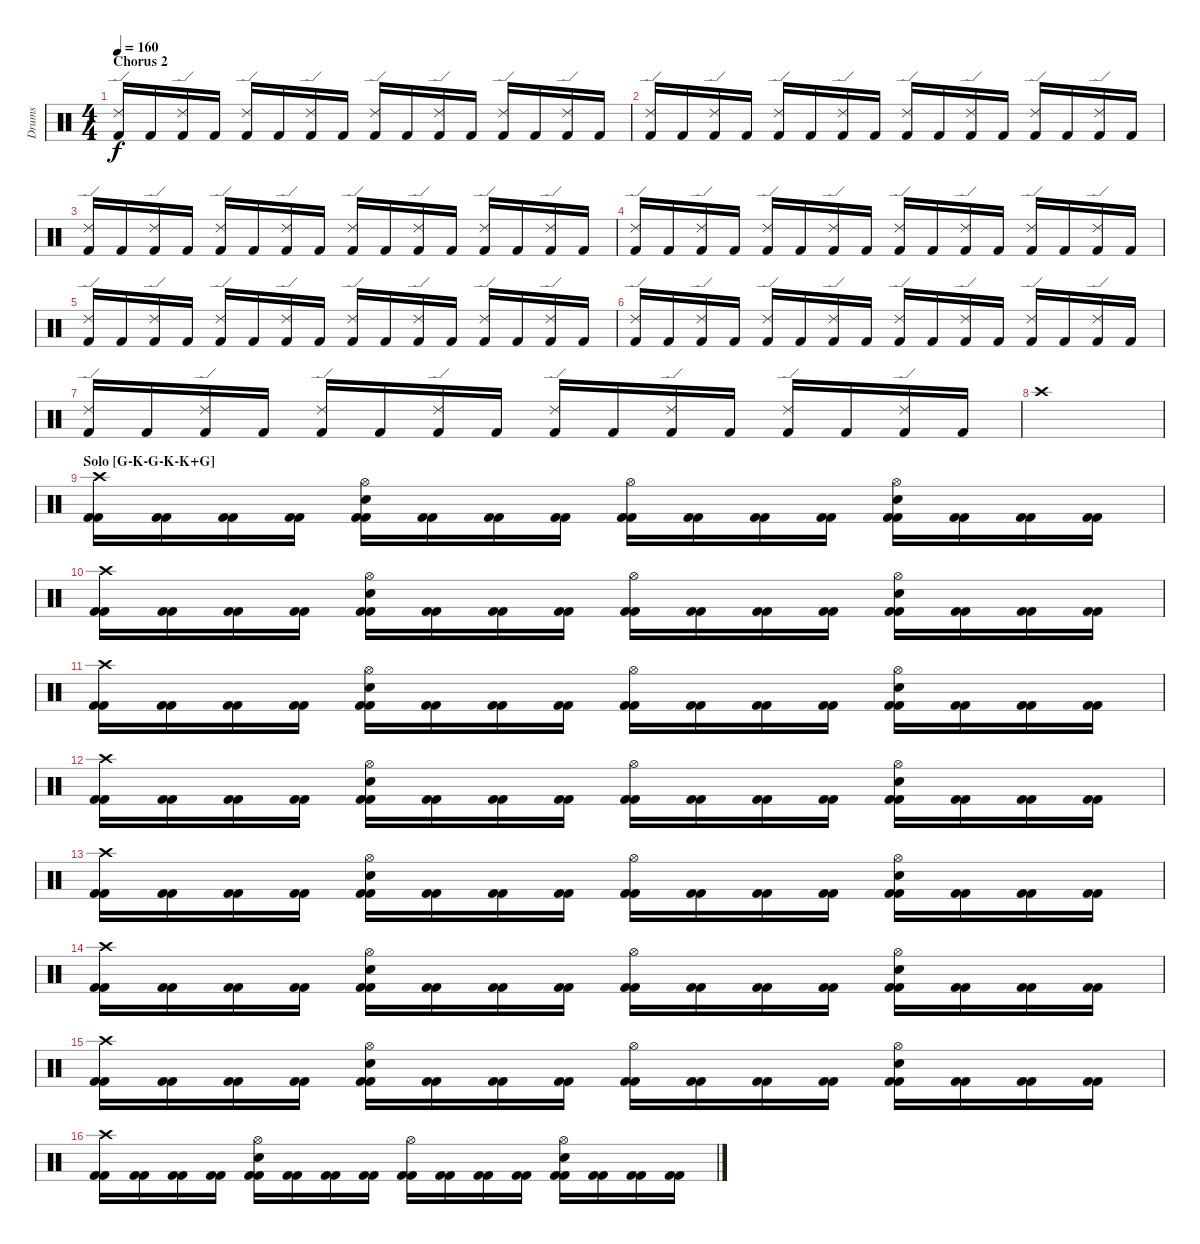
\track ("Drums" "Drums") {instrument percussion}
\staff {score}
\articulation defaults
\ts (4 4)
\section ("" "Chorus 2")
\tempo 160
\clef neutral
\ks c
("Kick (hit) 2" "Ride (edge) 2").16{dy f} "Kick (hit) 2".16 ("Kick (hit) 2" "Ride (edge) 2").16 "Kick (hit) 2".16 ("Kick (hit) 2" "Ride (edge) 2").16 "Kick (hit) 2".16 ("Kick (hit) 2" "Ride (edge) 2").16 "Kick (hit) 2".16 ("Kick (hit) 2" "Ride (edge) 2").16 "Kick (hit) 2".16 ("Kick (hit) 2" "Ride (edge) 2").16 "Kick (hit) 2".16 ("Kick (hit) 2" "Ride (edge) 2").16 "Kick (hit) 2".16 ("Kick (hit) 2" "Ride (edge) 2").16 "Kick (hit) 2".16 |
("Kick (hit) 2" "Ride (edge) 2").16 "Kick (hit) 2".16 ("Kick (hit) 2" "Ride (edge) 2").16 "Kick (hit) 2".16 ("Kick (hit) 2" "Ride (edge) 2").16 "Kick (hit) 2".16 ("Kick (hit) 2" "Ride (edge) 2").16 "Kick (hit) 2".16 ("Kick (hit) 2" "Ride (edge) 2").16 "Kick (hit) 2".16 ("Kick (hit) 2" "Ride (edge) 2").16 "Kick (hit) 2".16 ("Kick (hit) 2" "Ride (edge) 2").16 "Kick (hit) 2".16 ("Kick (hit) 2" "Ride (edge) 2").16 "Kick (hit) 2".16 |
("Kick (hit) 2" "Ride (edge) 2").16 "Kick (hit) 2".16 ("Kick (hit) 2" "Ride (edge) 2").16 "Kick (hit) 2".16 ("Kick (hit) 2" "Ride (edge) 2").16 "Kick (hit) 2".16 ("Kick (hit) 2" "Ride (edge) 2").16 "Kick (hit) 2".16 ("Kick (hit) 2" "Ride (edge) 2").16 "Kick (hit) 2".16 ("Kick (hit) 2" "Ride (edge) 2").16 "Kick (hit) 2".16 ("Kick (hit) 2" "Ride (edge) 2").16 "Kick (hit) 2".16 ("Kick (hit) 2" "Ride (edge) 2").16 "Kick (hit) 2".16 |
("Kick (hit) 2" "Ride (edge) 2").16 "Kick (hit) 2".16 ("Kick (hit) 2" "Ride (edge) 2").16 "Kick (hit) 2".16 ("Kick (hit) 2" "Ride (edge) 2").16 "Kick (hit) 2".16 ("Kick (hit) 2" "Ride (edge) 2").16 "Kick (hit) 2".16 ("Kick (hit) 2" "Ride (edge) 2").16 "Kick (hit) 2".16 ("Kick (hit) 2" "Ride (edge) 2").16 "Kick (hit) 2".16 ("Kick (hit) 2" "Ride (edge) 2").16 "Kick (hit) 2".16 ("Kick (hit) 2" "Ride (edge) 2").16 "Kick (hit) 2".16 |
("Kick (hit) 2" "Ride (edge) 2").16 "Kick (hit) 2".16 ("Kick (hit) 2" "Ride (edge) 2").16 "Kick (hit) 2".16 ("Kick (hit) 2" "Ride (edge) 2").16 "Kick (hit) 2".16 ("Kick (hit) 2" "Ride (edge) 2").16 "Kick (hit) 2".16 ("Kick (hit) 2" "Ride (edge) 2").16 "Kick (hit) 2".16 ("Kick (hit) 2" "Ride (edge) 2").16 "Kick (hit) 2".16 ("Kick (hit) 2" "Ride (edge) 2").16 "Kick (hit) 2".16 ("Kick (hit) 2" "Ride (edge) 2").16 "Kick (hit) 2".16 |
("Kick (hit) 2" "Ride (edge) 2").16 "Kick (hit) 2".16 ("Kick (hit) 2" "Ride (edge) 2").16 "Kick (hit) 2".16 ("Kick (hit) 2" "Ride (edge) 2").16 "Kick (hit) 2".16 ("Kick (hit) 2" "Ride (edge) 2").16 "Kick (hit) 2".16 ("Kick (hit) 2" "Ride (edge) 2").16 "Kick (hit) 2".16 ("Kick (hit) 2" "Ride (edge) 2").16 "Kick (hit) 2".16 ("Kick (hit) 2" "Ride (edge) 2").16 "Kick (hit) 2".16 ("Kick (hit) 2" "Ride (edge) 2").16 "Kick (hit) 2".16 |
("Kick (hit) 2" "Ride (edge) 2").16 "Kick (hit) 2".16 ("Kick (hit) 2" "Ride (edge) 2").16 "Kick (hit) 2".16 ("Kick (hit) 2" "Ride (edge) 2").16 "Kick (hit) 2".16 ("Kick (hit) 2" "Ride (edge) 2").16 "Kick (hit) 2".16 ("Kick (hit) 2" "Ride (edge) 2").16 "Kick (hit) 2".16 ("Kick (hit) 2" "Ride (edge) 2").16 "Kick (hit) 2".16 ("Kick (hit) 2" "Ride (edge) 2").16 "Kick (hit) 2".16 ("Kick (hit) 2" "Ride (edge) 2").16 "Kick (hit) 2".16 |
"Crash high (hit)".1 |
\section ("" "Solo [G-K-G-K-K+G]")
("Kick (hit) 2" "Kick (hit) 2" "Crash high (hit)").16 ("Kick (hit) 2" "Kick (hit) 2").16 ("Kick (hit) 2" "Kick (hit) 2").16 ("Kick (hit) 2" "Kick (hit) 2").16 ("Kick (hit) 2" "Kick (hit) 2" "Electric Snare (hit)" "Hi-Hat (open)").16 ("Kick (hit) 2" "Kick (hit) 2").16 ("Kick (hit) 2" "Kick (hit) 2").16 ("Kick (hit) 2" "Kick (hit) 2").16 ("Kick (hit) 2" "Kick (hit) 2" "Hi-Hat (open)").16 ("Kick (hit) 2" "Kick (hit) 2").16 ("Kick (hit) 2" "Kick (hit) 2").16 ("Kick (hit) 2" "Kick (hit) 2").16 ("Kick (hit) 2" "Kick (hit) 2" "Electric Snare (hit)" "Hi-Hat (open)").16 ("Kick (hit) 2" "Kick (hit) 2").16 ("Kick (hit) 2" "Kick (hit) 2").16 ("Kick (hit) 2" "Kick (hit) 2").16 |
("Kick (hit) 2" "Kick (hit) 2" "Crash high (hit)").16 ("Kick (hit) 2" "Kick (hit) 2").16 ("Kick (hit) 2" "Kick (hit) 2").16 ("Kick (hit) 2" "Kick (hit) 2").16 ("Kick (hit) 2" "Kick (hit) 2" "Electric Snare (hit)" "Hi-Hat (open)").16 ("Kick (hit) 2" "Kick (hit) 2").16 ("Kick (hit) 2" "Kick (hit) 2").16 ("Kick (hit) 2" "Kick (hit) 2").16 ("Kick (hit) 2" "Kick (hit) 2" "Hi-Hat (open)").16 ("Kick (hit) 2" "Kick (hit) 2").16 ("Kick (hit) 2" "Kick (hit) 2").16 ("Kick (hit) 2" "Kick (hit) 2").16 ("Kick (hit) 2" "Kick (hit) 2" "Electric Snare (hit)" "Hi-Hat (open)").16 ("Kick (hit) 2" "Kick (hit) 2").16 ("Kick (hit) 2" "Kick (hit) 2").16 ("Kick (hit) 2" "Kick (hit) 2").16 |
("Kick (hit) 2" "Kick (hit) 2" "Crash high (hit)").16 ("Kick (hit) 2" "Kick (hit) 2").16 ("Kick (hit) 2" "Kick (hit) 2").16 ("Kick (hit) 2" "Kick (hit) 2").16 ("Kick (hit) 2" "Kick (hit) 2" "Electric Snare (hit)" "Hi-Hat (open)").16 ("Kick (hit) 2" "Kick (hit) 2").16 ("Kick (hit) 2" "Kick (hit) 2").16 ("Kick (hit) 2" "Kick (hit) 2").16 ("Kick (hit) 2" "Kick (hit) 2" "Hi-Hat (open)").16 ("Kick (hit) 2" "Kick (hit) 2").16 ("Kick (hit) 2" "Kick (hit) 2").16 ("Kick (hit) 2" "Kick (hit) 2").16 ("Kick (hit) 2" "Kick (hit) 2" "Electric Snare (hit)" "Hi-Hat (open)").16 ("Kick (hit) 2" "Kick (hit) 2").16 ("Kick (hit) 2" "Kick (hit) 2").16 ("Kick (hit) 2" "Kick (hit) 2").16 |
("Kick (hit) 2" "Kick (hit) 2" "Crash high (hit)").16 ("Kick (hit) 2" "Kick (hit) 2").16 ("Kick (hit) 2" "Kick (hit) 2").16 ("Kick (hit) 2" "Kick (hit) 2").16 ("Kick (hit) 2" "Kick (hit) 2" "Electric Snare (hit)" "Hi-Hat (open)").16 ("Kick (hit) 2" "Kick (hit) 2").16 ("Kick (hit) 2" "Kick (hit) 2").16 ("Kick (hit) 2" "Kick (hit) 2").16 ("Kick (hit) 2" "Kick (hit) 2" "Hi-Hat (open)").16 ("Kick (hit) 2" "Kick (hit) 2").16 ("Kick (hit) 2" "Kick (hit) 2").16 ("Kick (hit) 2" "Kick (hit) 2").16 ("Kick (hit) 2" "Kick (hit) 2" "Electric Snare (hit)" "Hi-Hat (open)").16 ("Kick (hit) 2" "Kick (hit) 2").16 ("Kick (hit) 2" "Kick (hit) 2").16 ("Kick (hit) 2" "Kick (hit) 2").16 |
("Kick (hit) 2" "Kick (hit) 2" "Crash high (hit)").16 ("Kick (hit) 2" "Kick (hit) 2").16 ("Kick (hit) 2" "Kick (hit) 2").16 ("Kick (hit) 2" "Kick (hit) 2").16 ("Kick (hit) 2" "Kick (hit) 2" "Electric Snare (hit)" "Hi-Hat (open)").16 ("Kick (hit) 2" "Kick (hit) 2").16 ("Kick (hit) 2" "Kick (hit) 2").16 ("Kick (hit) 2" "Kick (hit) 2").16 ("Kick (hit) 2" "Kick (hit) 2" "Hi-Hat (open)").16 ("Kick (hit) 2" "Kick (hit) 2").16 ("Kick (hit) 2" "Kick (hit) 2").16 ("Kick (hit) 2" "Kick (hit) 2").16 ("Kick (hit) 2" "Kick (hit) 2" "Electric Snare (hit)" "Hi-Hat (open)").16 ("Kick (hit) 2" "Kick (hit) 2").16 ("Kick (hit) 2" "Kick (hit) 2").16 ("Kick (hit) 2" "Kick (hit) 2").16 |
("Kick (hit) 2" "Kick (hit) 2" "Crash high (hit)").16 ("Kick (hit) 2" "Kick (hit) 2").16 ("Kick (hit) 2" "Kick (hit) 2").16 ("Kick (hit) 2" "Kick (hit) 2").16 ("Kick (hit) 2" "Kick (hit) 2" "Electric Snare (hit)" "Hi-Hat (open)").16 ("Kick (hit) 2" "Kick (hit) 2").16 ("Kick (hit) 2" "Kick (hit) 2").16 ("Kick (hit) 2" "Kick (hit) 2").16 ("Kick (hit) 2" "Kick (hit) 2" "Hi-Hat (open)").16 ("Kick (hit) 2" "Kick (hit) 2").16 ("Kick (hit) 2" "Kick (hit) 2").16 ("Kick (hit) 2" "Kick (hit) 2").16 ("Kick (hit) 2" "Kick (hit) 2" "Electric Snare (hit)" "Hi-Hat (open)").16 ("Kick (hit) 2" "Kick (hit) 2").16 ("Kick (hit) 2" "Kick (hit) 2").16 ("Kick (hit) 2" "Kick (hit) 2").16 |
("Kick (hit) 2" "Kick (hit) 2" "Crash high (hit)").16 ("Kick (hit) 2" "Kick (hit) 2").16 ("Kick (hit) 2" "Kick (hit) 2").16 ("Kick (hit) 2" "Kick (hit) 2").16 ("Kick (hit) 2" "Kick (hit) 2" "Electric Snare (hit)" "Hi-Hat (open)").16 ("Kick (hit) 2" "Kick (hit) 2").16 ("Kick (hit) 2" "Kick (hit) 2").16 ("Kick (hit) 2" "Kick (hit) 2").16 ("Kick (hit) 2" "Kick (hit) 2" "Hi-Hat (open)").16 ("Kick (hit) 2" "Kick (hit) 2").16 ("Kick (hit) 2" "Kick (hit) 2").16 ("Kick (hit) 2" "Kick (hit) 2").16 ("Kick (hit) 2" "Kick (hit) 2" "Electric Snare (hit)" "Hi-Hat (open)").16 ("Kick (hit) 2" "Kick (hit) 2").16 ("Kick (hit) 2" "Kick (hit) 2").16 ("Kick (hit) 2" "Kick (hit) 2").16 |
("Kick (hit) 2" "Kick (hit) 2" "Crash high (hit)").16 ("Kick (hit) 2" "Kick (hit) 2").16 ("Kick (hit) 2" "Kick (hit) 2").16 ("Kick (hit) 2" "Kick (hit) 2").16 ("Kick (hit) 2" "Kick (hit) 2" "Electric Snare (hit)" "Hi-Hat (open)").16 ("Kick (hit) 2" "Kick (hit) 2").16 ("Kick (hit) 2" "Kick (hit) 2").16 ("Kick (hit) 2" "Kick (hit) 2").16 ("Kick (hit) 2" "Kick (hit) 2" "Hi-Hat (open)").16 ("Kick (hit) 2" "Kick (hit) 2").16 ("Kick (hit) 2" "Kick (hit) 2").16 ("Kick (hit) 2" "Kick (hit) 2").16 ("Kick (hit) 2" "Kick (hit) 2" "Electric Snare (hit)" "Hi-Hat (open)").16 ("Kick (hit) 2" "Kick (hit) 2").16 ("Kick (hit) 2" "Kick (hit) 2").16 ("Kick (hit) 2" "Kick (hit) 2").16
